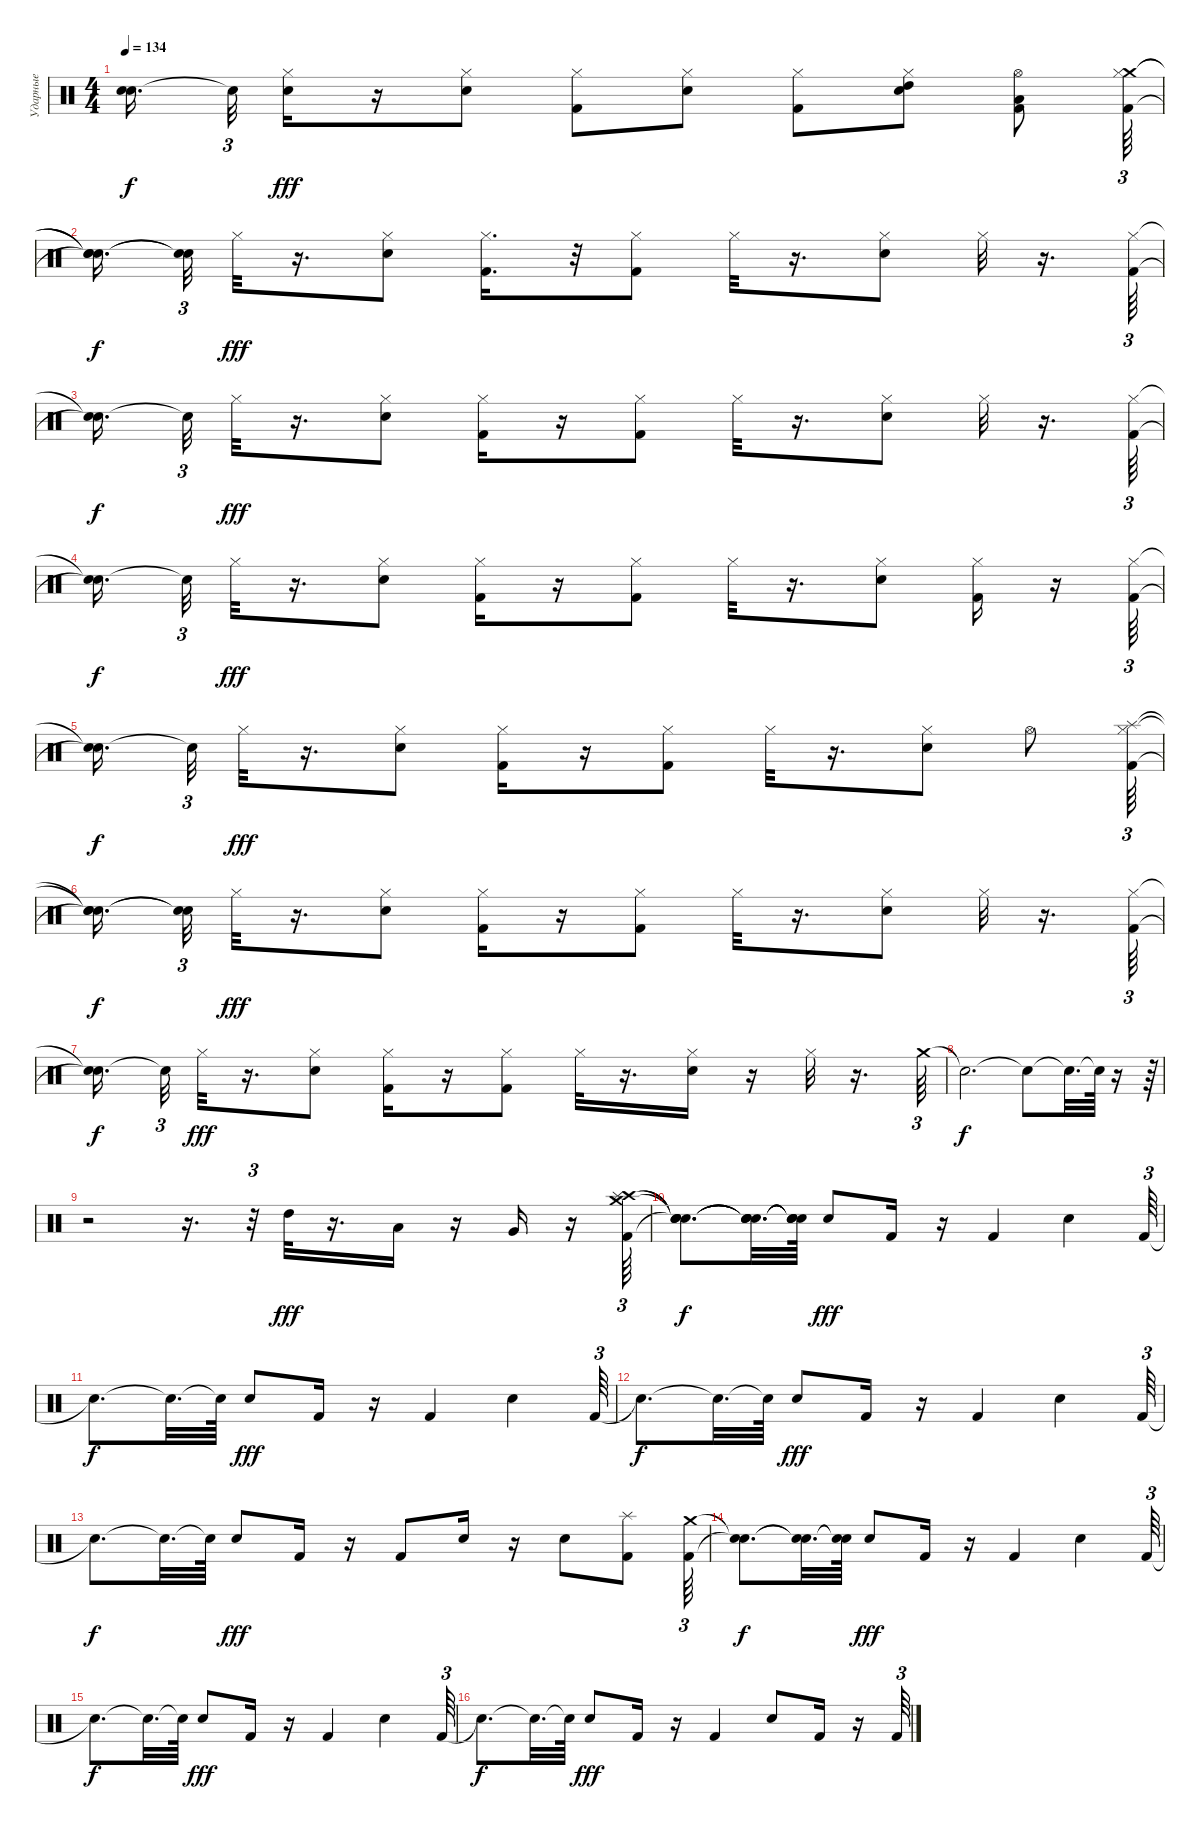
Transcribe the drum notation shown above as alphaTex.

\track ("Ударные" "Ударные") {instrument percussion}
\staff {score}
\articulation defaults
\ts (4 4)
\tempo 134
\clef neutral
\ks c
("Snare (hit)"{t} "Snare (hit)"{t}).16{d dy f beam splitsecondary} "Snare (hit)"{t}.32{tu (3 2)} ("Electric Snare (hit)" "Hi-Hat (closed)").16{dy fff} r.16 ("Electric Snare (hit)" "Hi-Hat (closed)").8 ("Kick (hit) 2" "Hi-Hat (closed)").8 ("Electric Snare (hit)" "Hi-Hat (closed)").8 ("Kick (hit) 2" "Hi-Hat (closed)").8 ("Electric Snare (hit)" "High Tom (hit)" "Hi-Hat (closed)").8 ("Kick (hit) 2" "Low Tom (hit)" "Hi-Hat (open)").8 ("Kick (hit) 2" "Crash medium (hit)" "Hi-Hat (closed)").64{tu (3 2)} |
("Snare (hit)"{t} "Snare (hit)"{t} "Snare (hit)"{t}).16{d dy f beam splitsecondary} ("Snare (hit)"{t} "Snare (hit)"{t}).32{tu (3 2)} "Hi-Hat (closed)".32{dy fff} r.16{d} ("Electric Snare (hit)" "Hi-Hat (closed)").8 ("Kick (hit) 2" "Hi-Hat (closed)").16{d} r.32 ("Kick (hit) 2" "Hi-Hat (closed)").8 "Hi-Hat (closed)".32 r.16{d} ("Electric Snare (hit)" "Hi-Hat (closed)").8 "Hi-Hat (closed)".32 r.16{d} ("Kick (hit) 2" "Hi-Hat (closed)").64{tu (3 2)} |
("Snare (hit)"{t} "Snare (hit)"{t}).16{d dy f beam splitsecondary} "Snare (hit)"{t}.32{tu (3 2)} "Hi-Hat (closed)".32{dy fff} r.16{d} ("Electric Snare (hit)" "Hi-Hat (closed)").8 ("Kick (hit) 2" "Hi-Hat (closed)").16 r.16 ("Kick (hit) 2" "Hi-Hat (closed)").8 "Hi-Hat (closed)".32 r.16{d} ("Electric Snare (hit)" "Hi-Hat (closed)").8 "Hi-Hat (closed)".32 r.16{d} ("Kick (hit) 2" "Hi-Hat (closed)").64{tu (3 2)} |
("Snare (hit)"{t} "Snare (hit)"{t}).16{d dy f beam splitsecondary} "Snare (hit)"{t}.32{tu (3 2)} "Hi-Hat (closed)".32{dy fff} r.16{d} ("Electric Snare (hit)" "Hi-Hat (closed)").8 ("Kick (hit) 2" "Hi-Hat (closed)").16 r.16 ("Kick (hit) 2" "Hi-Hat (closed)").8 "Hi-Hat (closed)".32 r.16{d} ("Electric Snare (hit)" "Hi-Hat (closed)").8 ("Kick (hit) 2" "Hi-Hat (closed)").16 r.16 ("Kick (hit) 2" "Hi-Hat (closed)").64{tu (3 2)} |
("Snare (hit)"{t} "Snare (hit)"{t}).16{d dy f beam splitsecondary} "Snare (hit)"{t}.32{tu (3 2)} "Hi-Hat (closed)".32{dy fff} r.16{d} ("Electric Snare (hit)" "Hi-Hat (closed)").8 ("Kick (hit) 2" "Hi-Hat (closed)").16 r.16 ("Kick (hit) 2" "Hi-Hat (closed)").8 "Hi-Hat (closed)".32 r.16{d} ("Electric Snare (hit)" "Hi-Hat (closed)").8 "Hi-Hat (open)".8 ("Kick (hit) 2" "Hi-Hat (closed)" "Splash (hit)").64{tu (3 2)} |
("Snare (hit)"{t} "Snare (hit)"{t} "Snare (hit)"{t}).16{d dy f beam splitsecondary} ("Snare (hit)"{t} "Snare (hit)"{t}).32{tu (3 2)} "Hi-Hat (closed)".32{dy fff} r.16{d} ("Electric Snare (hit)" "Hi-Hat (closed)").8 ("Kick (hit) 2" "Hi-Hat (closed)").16 r.16 ("Kick (hit) 2" "Hi-Hat (closed)").8 "Hi-Hat (closed)".32 r.16{d} ("Electric Snare (hit)" "Hi-Hat (closed)").8 "Hi-Hat (closed)".32 r.16{d} ("Kick (hit) 2" "Hi-Hat (closed)").64{tu (3 2)} |
("Snare (hit)"{t} "Snare (hit)"{t}).16{d dy f beam splitsecondary} "Snare (hit)"{t}.32{tu (3 2)} "Hi-Hat (closed)".32{dy fff} r.16{d} ("Electric Snare (hit)" "Hi-Hat (closed)").8 ("Kick (hit) 2" "Hi-Hat (closed)").16 r.16 ("Kick (hit) 2" "Hi-Hat (closed)").8 "Hi-Hat (closed)".32 r.16{d} ("Electric Snare (hit)" "Hi-Hat (closed)").16 r.16 "Hi-Hat (closed)".32 r.16{d} "Crash medium (hit)".64{tu (3 2)} |
"Snare (hit)"{t}.2{d dy f} "Snare (hit)"{t}.8 "Snare (hit)"{t}.32{d} "Snare (hit)"{t}.64 r.16 r.64{tu (3 2)} |
r.2 r.16{d} r.32{tu (3 2)} "High Tom (hit)".32{dy fff} r.16{d} "Low Tom (hit)".16 r.16 "Very Low Tom (hit)".16 r.16 ("Kick (hit) 2" "Crash high (hit)" "Splash (hit)" "Crash medium (hit)").64{tu (3 2)} |
("Snare (hit)"{t} "Snare (hit)"{t} "Snare (hit)"{t} "Snare (hit)"{t}).8{d dy f} ("Snare (hit)"{t} "Snare (hit)"{t} "Snare (hit)"{t} "Snare (hit)"{t}).32{d} ("Snare (hit)"{t} "Snare (hit)"{t} "Snare (hit)"{t} "Snare (hit)"{t}).64 "Electric Snare (hit)".8{dy fff} "Kick (hit) 2".16 r.16 "Kick (hit) 2".4 "Electric Snare (hit)".4 "Kick (hit) 2".64{tu (3 2)} |
"Snare (hit)"{t}.8{d dy f} "Snare (hit)"{t}.32{d} "Snare (hit)"{t}.64 "Electric Snare (hit)".8{dy fff} "Kick (hit) 2".16 r.16 "Kick (hit) 2".4 "Electric Snare (hit)".4 "Kick (hit) 2".64{tu (3 2)} |
"Snare (hit)"{t}.8{d dy f} "Snare (hit)"{t}.32{d} "Snare (hit)"{t}.64 "Electric Snare (hit)".8{dy fff} "Kick (hit) 2".16 r.16 "Kick (hit) 2".4 "Electric Snare (hit)".4 "Kick (hit) 2".64{tu (3 2)} |
"Snare (hit)"{t}.8{d dy f} "Snare (hit)"{t}.32{d} "Snare (hit)"{t}.64 "Electric Snare (hit)".8{dy fff} "Kick (hit) 2".16 r.16 "Kick (hit) 2".8 "Electric Snare (hit)".16 r.16 "Electric Snare (hit)".8 ("Kick (hit) 2" "Splash (hit)").8 ("Kick (hit) 2" "Crash medium (hit)").64{tu (3 2)} |
("Snare (hit)"{t} "Snare (hit)"{t}).8{d dy f} ("Snare (hit)"{t} "Snare (hit)"{t}).32{d} ("Snare (hit)"{t} "Snare (hit)"{t}).64 "Electric Snare (hit)".8{dy fff} "Kick (hit) 2".16 r.16 "Kick (hit) 2".4 "Electric Snare (hit)".4 "Kick (hit) 2".64{tu (3 2)} |
"Snare (hit)"{t}.8{d dy f} "Snare (hit)"{t}.32{d} "Snare (hit)"{t}.64 "Electric Snare (hit)".8{dy fff} "Kick (hit) 2".16 r.16 "Kick (hit) 2".4 "Electric Snare (hit)".4 "Kick (hit) 2".64{tu (3 2)} |
"Snare (hit)"{t}.8{d dy f} "Snare (hit)"{t}.32{d} "Snare (hit)"{t}.64 "Electric Snare (hit)".8{dy fff} "Kick (hit) 2".16 r.16 "Kick (hit) 2".4 "Electric Snare (hit)".8 "Kick (hit) 2".16 r.16 "Kick (hit) 2".64{tu (3 2)}
